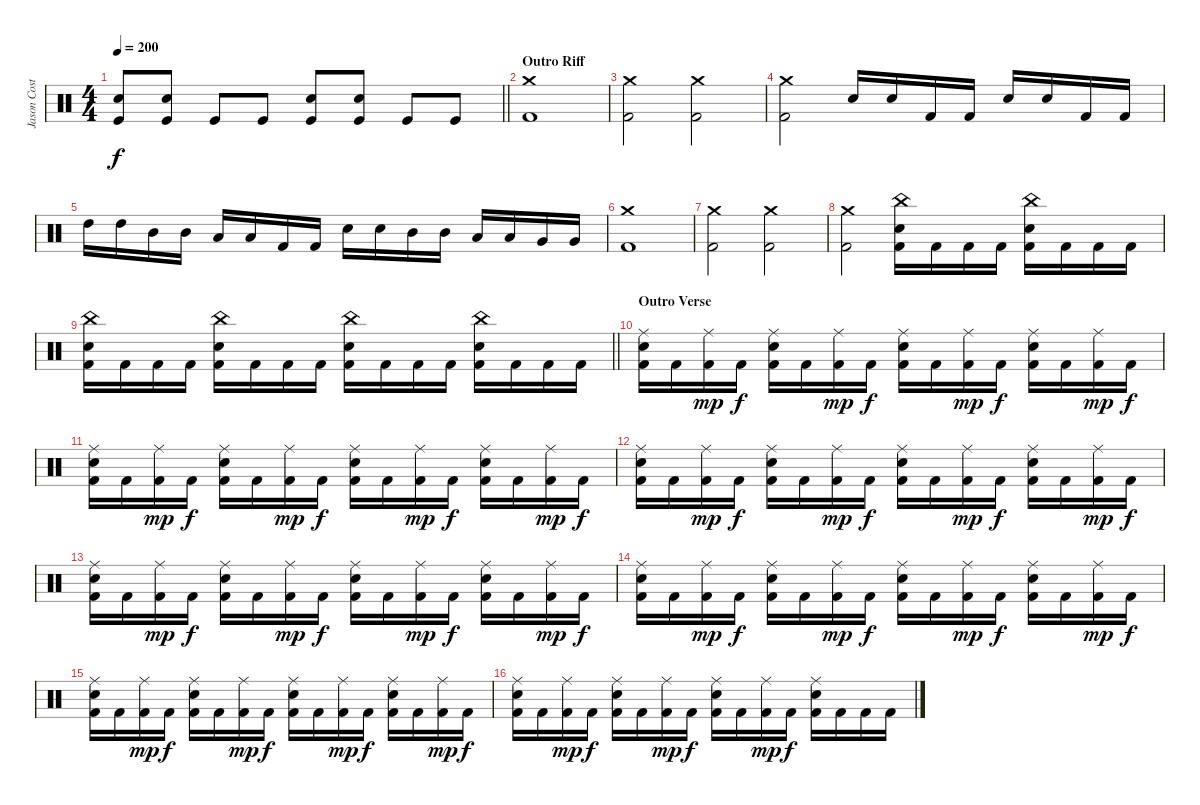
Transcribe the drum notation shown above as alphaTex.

\track ("Jason Costa" "Jason Cost") {instrument percussion}
\staff {score}
\articulation defaults
\ts (4 4)
\tempo 200
\clef neutral
\barLineRight lightlight
\ks c
("Electric Snare (hit)" "Kick (hit)").8{dy f} ("Electric Snare (hit)" "Kick (hit)").8 "Kick (hit)".8 "Kick (hit)".8 ("Electric Snare (hit)" "Kick (hit)").8 ("Electric Snare (hit)" "Kick (hit)").8 "Kick (hit)".8 "Kick (hit)".8 |
\section ("" "Outro Riff")
("Crash medium (hit)" "Kick (hit) 2").1 |
("Crash medium (hit)" "Kick (hit) 2").2 ("Crash medium (hit)" "Kick (hit) 2").2 |
("Crash medium (hit)" "Kick (hit) 2").2 "Electric Snare (hit)".16 "Electric Snare (hit)".16 "Kick (hit) 2".16 "Kick (hit) 2".16 "Electric Snare (hit)".16 "Electric Snare (hit)".16 "Kick (hit) 2".16 "Kick (hit) 2".16 |
"High Tom (hit)".16 "High Tom (hit)".16 "Mid Tom (hit)".16 "Mid Tom (hit)".16 "Low Tom (hit)".16 "Low Tom (hit)".16 "Kick (hit) 2".16 "Kick (hit) 2".16 "Electric Snare (hit)".16 "Electric Snare (hit)".16 "Mid Tom (hit)".16 "Mid Tom (hit)".16 "Low Tom (hit)".16 "Low Tom (hit)".16 "Very Low Tom (hit)".16 "Very Low Tom (hit)".16 |
("Crash medium (hit)" "Kick (hit) 2").1 |
("Crash medium (hit)" "Kick (hit) 2").2 ("Crash medium (hit)" "Kick (hit) 2").2 |
("Crash medium (hit)" "Kick (hit) 2").2 ("China (hit)" "Electric Snare (hit)" "Kick (hit) 2").16 "Kick (hit) 2".16 "Kick (hit) 2".16 "Kick (hit) 2".16 ("China (hit)" "Electric Snare (hit)" "Kick (hit) 2").16 "Kick (hit) 2".16 "Kick (hit) 2".16 "Kick (hit) 2".16 |
\barLineRight lightlight
("China (hit)" "Electric Snare (hit)" "Kick (hit) 2").16 "Kick (hit) 2".16 "Kick (hit) 2".16 "Kick (hit) 2".16 ("China (hit)" "Electric Snare (hit)" "Kick (hit) 2").16 "Kick (hit) 2".16 "Kick (hit) 2".16 "Kick (hit) 2".16 ("China (hit)" "Electric Snare (hit)" "Kick (hit) 2").16 "Kick (hit) 2".16 "Kick (hit) 2".16 "Kick (hit) 2".16 ("China (hit)" "Electric Snare (hit)" "Kick (hit) 2").16 "Kick (hit) 2".16 "Kick (hit) 2".16 "Kick (hit) 2".16 |
\section ("" "Outro Verse")
("Ride (middle)" "Electric Snare (hit)" "Kick (hit) 2").16 "Kick (hit) 2".16 ("Ride (middle)" "Kick (hit) 2").16{dy mp} "Kick (hit) 2".16{dy f} ("Ride (middle)" "Electric Snare (hit)" "Kick (hit) 2").16 "Kick (hit) 2".16 ("Ride (middle)" "Kick (hit) 2").16{dy mp} "Kick (hit) 2".16{dy f} ("Ride (middle)" "Electric Snare (hit)" "Kick (hit) 2").16 "Kick (hit) 2".16 ("Ride (middle)" "Kick (hit) 2").16{dy mp} "Kick (hit) 2".16{dy f} ("Ride (middle)" "Electric Snare (hit)" "Kick (hit) 2").16 "Kick (hit) 2".16 ("Ride (middle)" "Kick (hit) 2").16{dy mp} "Kick (hit) 2".16{dy f} |
("Ride (middle)" "Electric Snare (hit)" "Kick (hit) 2").16 "Kick (hit) 2".16 ("Ride (middle)" "Kick (hit) 2").16{dy mp} "Kick (hit) 2".16{dy f} ("Ride (middle)" "Electric Snare (hit)" "Kick (hit) 2").16 "Kick (hit) 2".16 ("Ride (middle)" "Kick (hit) 2").16{dy mp} "Kick (hit) 2".16{dy f} ("Ride (middle)" "Electric Snare (hit)" "Kick (hit) 2").16 "Kick (hit) 2".16 ("Ride (middle)" "Kick (hit) 2").16{dy mp} "Kick (hit) 2".16{dy f} ("Ride (middle)" "Electric Snare (hit)" "Kick (hit) 2").16 "Kick (hit) 2".16 ("Ride (middle)" "Kick (hit) 2").16{dy mp} "Kick (hit) 2".16{dy f} |
("Ride (middle)" "Electric Snare (hit)" "Kick (hit) 2").16 "Kick (hit) 2".16 ("Ride (middle)" "Kick (hit) 2").16{dy mp} "Kick (hit) 2".16{dy f} ("Ride (middle)" "Electric Snare (hit)" "Kick (hit) 2").16 "Kick (hit) 2".16 ("Ride (middle)" "Kick (hit) 2").16{dy mp} "Kick (hit) 2".16{dy f} ("Ride (middle)" "Electric Snare (hit)" "Kick (hit) 2").16 "Kick (hit) 2".16 ("Ride (middle)" "Kick (hit) 2").16{dy mp} "Kick (hit) 2".16{dy f} ("Ride (middle)" "Electric Snare (hit)" "Kick (hit) 2").16 "Kick (hit) 2".16 ("Ride (middle)" "Kick (hit) 2").16{dy mp} "Kick (hit) 2".16{dy f} |
("Ride (middle)" "Electric Snare (hit)" "Kick (hit) 2").16 "Kick (hit) 2".16 ("Ride (middle)" "Kick (hit) 2").16{dy mp} "Kick (hit) 2".16{dy f} ("Ride (middle)" "Electric Snare (hit)" "Kick (hit) 2").16 "Kick (hit) 2".16 ("Ride (middle)" "Kick (hit) 2").16{dy mp} "Kick (hit) 2".16{dy f} ("Ride (middle)" "Electric Snare (hit)" "Kick (hit) 2").16 "Kick (hit) 2".16 ("Ride (middle)" "Kick (hit) 2").16{dy mp} "Kick (hit) 2".16{dy f} ("Ride (middle)" "Electric Snare (hit)" "Kick (hit) 2").16 "Kick (hit) 2".16 ("Ride (middle)" "Kick (hit) 2").16{dy mp} "Kick (hit) 2".16{dy f} |
("Ride (middle)" "Electric Snare (hit)" "Kick (hit) 2").16 "Kick (hit) 2".16 ("Ride (middle)" "Kick (hit) 2").16{dy mp} "Kick (hit) 2".16{dy f} ("Ride (middle)" "Electric Snare (hit)" "Kick (hit) 2").16 "Kick (hit) 2".16 ("Ride (middle)" "Kick (hit) 2").16{dy mp} "Kick (hit) 2".16{dy f} ("Ride (middle)" "Electric Snare (hit)" "Kick (hit) 2").16 "Kick (hit) 2".16 ("Ride (middle)" "Kick (hit) 2").16{dy mp} "Kick (hit) 2".16{dy f} ("Ride (middle)" "Electric Snare (hit)" "Kick (hit) 2").16 "Kick (hit) 2".16 ("Ride (middle)" "Kick (hit) 2").16{dy mp} "Kick (hit) 2".16{dy f} |
("Ride (middle)" "Electric Snare (hit)" "Kick (hit) 2").16 "Kick (hit) 2".16 ("Ride (middle)" "Kick (hit) 2").16{dy mp} "Kick (hit) 2".16{dy f} ("Ride (middle)" "Electric Snare (hit)" "Kick (hit) 2").16 "Kick (hit) 2".16 ("Ride (middle)" "Kick (hit) 2").16{dy mp} "Kick (hit) 2".16{dy f} ("Ride (middle)" "Electric Snare (hit)" "Kick (hit) 2").16 "Kick (hit) 2".16 ("Ride (middle)" "Kick (hit) 2").16{dy mp} "Kick (hit) 2".16{dy f} ("Ride (middle)" "Electric Snare (hit)" "Kick (hit) 2").16 "Kick (hit) 2".16 ("Ride (middle)" "Kick (hit) 2").16{dy mp} "Kick (hit) 2".16{dy f} |
("Ride (middle)" "Electric Snare (hit)" "Kick (hit) 2").16 "Kick (hit) 2".16 ("Ride (middle)" "Kick (hit) 2").16{dy mp} "Kick (hit) 2".16{dy f} ("Ride (middle)" "Electric Snare (hit)" "Kick (hit) 2").16 "Kick (hit) 2".16 ("Ride (middle)" "Kick (hit) 2").16{dy mp} "Kick (hit) 2".16{dy f} ("Ride (middle)" "Electric Snare (hit)" "Kick (hit) 2").16 "Kick (hit) 2".16 ("Ride (middle)" "Kick (hit) 2").16{dy mp} "Kick (hit) 2".16{dy f} ("Ride (middle)" "Electric Snare (hit)" "Kick (hit) 2").16 "Kick (hit) 2".16 "Kick (hit) 2".16 "Kick (hit) 2".16
